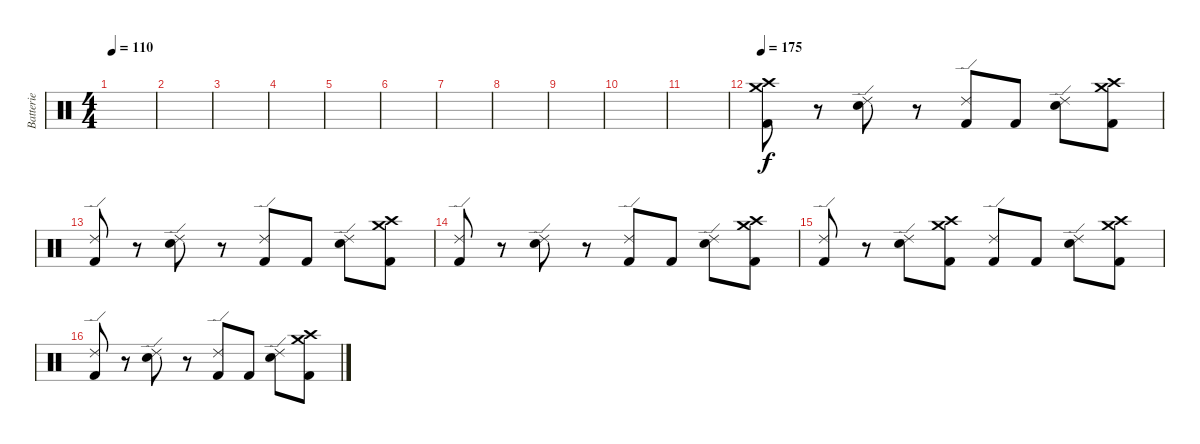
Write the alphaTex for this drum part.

\track ("Batterie" "Batterie") {instrument percussion}
\staff {score}
\articulation defaults
\ts (4 4)
\tempo 110
\clef neutral
\ks c
|
|
|
|
|
|
|
|
|
|
|
\tempo 175
("Crash high (hit)" "Crash medium (hit)" "Kick (hit) 2").8 r.8 ("Ride (edge) 2" "Snare (hit) 2").8 r.8 ("Ride (edge) 2" "Kick (hit) 2").8 "Kick (hit) 2".8 ("Ride (edge) 2" "Snare (hit) 2").8 ("Crash medium (hit)" "Crash high (hit)" "Kick (hit) 2").8 |
("Ride (edge) 2" "Kick (hit) 2").8 r.8 ("Ride (edge) 2" "Snare (hit) 2").8 r.8 ("Ride (edge) 2" "Kick (hit) 2").8 "Kick (hit) 2".8 ("Ride (edge) 2" "Snare (hit) 2").8 ("Crash medium (hit)" "Crash high (hit)" "Kick (hit) 2").8 |
("Ride (edge) 2" "Kick (hit) 2").8 r.8 ("Ride (edge) 2" "Snare (hit) 2").8 r.8 ("Ride (edge) 2" "Kick (hit) 2").8 "Kick (hit) 2".8 ("Ride (edge) 2" "Snare (hit) 2").8 ("Crash medium (hit)" "Crash high (hit)" "Kick (hit) 2").8 |
("Ride (edge) 2" "Kick (hit) 2").8 r.8 ("Ride (edge) 2" "Snare (hit) 2").8 ("Crash medium (hit)" "Crash high (hit)" "Kick (hit) 2").8 ("Ride (edge) 2" "Kick (hit) 2").8 "Kick (hit) 2".8 ("Ride (edge) 2" "Snare (hit) 2").8 ("Crash medium (hit)" "Crash high (hit)" "Kick (hit) 2").8 |
("Ride (edge) 2" "Kick (hit) 2").8 r.8 ("Ride (edge) 2" "Snare (hit) 2").8 r.8 ("Ride (edge) 2" "Kick (hit) 2").8 "Kick (hit) 2".8 ("Ride (edge) 2" "Snare (hit) 2").8 ("Crash medium (hit)" "Crash high (hit)" "Kick (hit) 2").8
